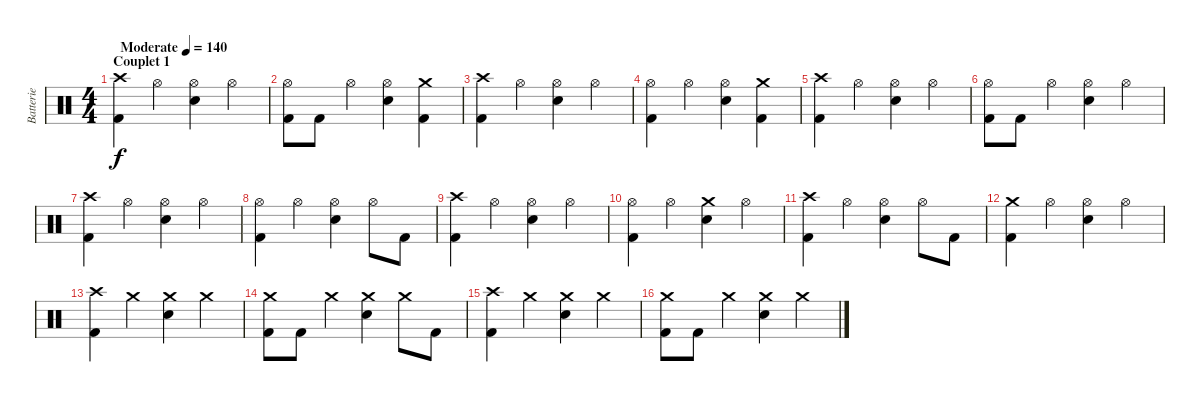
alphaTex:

\track ("Batterie" "Batterie") {instrument percussion}
\staff {score}
\articulation defaults
\ts (4 4)
\section ("" "Couplet 1")
\tempo (140 "Moderate")
\clef neutral
\ks c
("Crash high (hit)" "Kick (hit) 2").4{dy f} "Hi-Hat (open)".4 ("Hi-Hat (open)" "Electric Snare (hit)").4 "Hi-Hat (open)".4 |
("Hi-Hat (open)" "Kick (hit) 2").8 "Kick (hit) 2".8 "Hi-Hat (open)".4 ("Hi-Hat (open)" "Electric Snare (hit)").4 ("Crash medium (hit)" "Kick (hit) 2").4 |
("Crash high (hit)" "Kick (hit) 2").4 "Hi-Hat (open)".4 ("Hi-Hat (open)" "Electric Snare (hit)").4 "Hi-Hat (open)".4 |
("Hi-Hat (open)" "Kick (hit) 2").4 "Hi-Hat (open)".4 ("Hi-Hat (open)" "Electric Snare (hit)").4 ("Crash medium (hit)" "Kick (hit) 2").4 |
("Crash high (hit)" "Kick (hit) 2").4 "Hi-Hat (open)".4 ("Hi-Hat (open)" "Electric Snare (hit)").4 "Hi-Hat (open)".4 |
("Hi-Hat (open)" "Kick (hit) 2").8 "Kick (hit) 2".8 "Hi-Hat (open)".4 ("Hi-Hat (open)" "Electric Snare (hit)").4 "Hi-Hat (open)".4 |
("Crash high (hit)" "Kick (hit) 2").4 "Hi-Hat (open)".4 ("Hi-Hat (open)" "Electric Snare (hit)").4 "Hi-Hat (open)".4 |
("Hi-Hat (open)" "Kick (hit) 2").4 "Hi-Hat (open)".4 ("Hi-Hat (open)" "Electric Snare (hit)").4 "Hi-Hat (open)".8 "Kick (hit) 2".8 |
("Crash high (hit)" "Kick (hit) 2").4 "Hi-Hat (open)".4 ("Hi-Hat (open)" "Electric Snare (hit)").4 "Hi-Hat (open)".4 |
("Hi-Hat (open)" "Kick (hit) 2").4 "Hi-Hat (open)".4 ("Crash medium (hit)" "Electric Snare (hit)").4 "Hi-Hat (open)".4 |
("Crash high (hit)" "Kick (hit) 2").4 "Hi-Hat (open)".4 ("Hi-Hat (open)" "Electric Snare (hit)").4 "Hi-Hat (open)".8 "Kick (hit) 2".8 |
("Crash medium (hit)" "Kick (hit) 2").4 "Hi-Hat (open)".4 ("Hi-Hat (open)" "Electric Snare (hit)").4 "Hi-Hat (open)".4 |
("Crash high (hit)" "Kick (hit) 2").4 "Crash medium (hit)".4 ("Crash medium (hit)" "Electric Snare (hit)").4 "Crash medium (hit)".4 |
("Crash medium (hit)" "Kick (hit) 2").8 "Kick (hit) 2".8 "Crash medium (hit)".4 ("Crash medium (hit)" "Electric Snare (hit)").4 "Crash medium (hit)".8 "Kick (hit) 2".8 |
("Crash high (hit)" "Kick (hit) 2").4 "Crash medium (hit)".4 ("Crash medium (hit)" "Electric Snare (hit)").4 "Crash medium (hit)".4 |
("Crash medium (hit)" "Kick (hit) 2").8 "Kick (hit) 2".8 "Crash medium (hit)".4 ("Crash medium (hit)" "Electric Snare (hit)").4 "Crash medium (hit)".4
